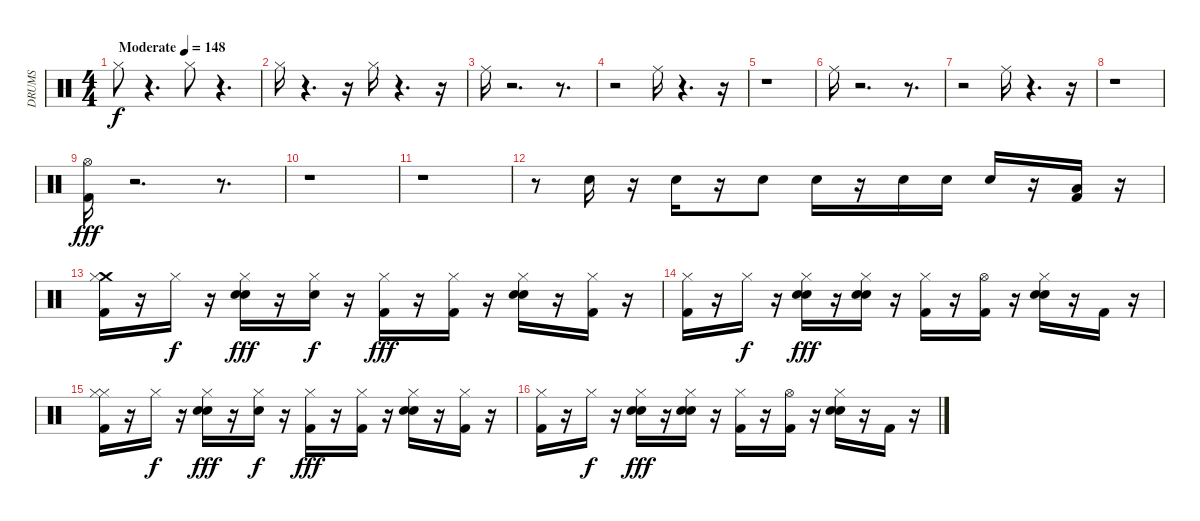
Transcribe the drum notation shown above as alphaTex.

\track ("DRUMS" "DRUMS") {instrument percussion}
\staff {score}
\articulation defaults
\ts (4 4)
\tempo (148 "Moderate")
\clef neutral
\ks c "Hi-Hat (closed)".8{dy f}
r.4{d} "Hi-Hat (closed)".8 r.4{d} |
"Hi-Hat (closed)".16 r.4{d} r.16 "Hi-Hat (closed)".16 r.4{d} r.16 |
"Ride (middle)".16 r.2{d} r.8{d} |
r.2 "Ride (middle)".16 r.4{d} r.16 |
r.1 |
"Ride (middle)".16 r.2{d} r.8{d} |
r.2 "Ride (middle)".16 r.4{d} r.16 |
r.1 |
("Kick (hit) 2" "Hi-Hat (open)").16{dy fff} r.2{d} r.8{d} |
r.1 |
r.1 |
r.8 "Snare (hit) 2".16 r.16 "Snare (hit) 2".16 r.16 "Snare (hit) 2".8 "Snare (hit) 2".16 r.16 "Snare (hit) 2".16 "Snare (hit) 2".16 "Snare (hit) 2".16 r.16 ("Low Floor Tom (hit)" "Kick (hit) 2").16 r.16 |
("Crash medium (hit)" "Kick (hit) 2" "Hi-Hat (closed)").16 r.16 "Hi-Hat (closed)".16{dy f} r.16 ("Hi-Hat (closed)" "Hand Clap (hit)" "Snare (hit) 2").16{dy fff} r.16 ("Hand Clap (hit)" "Hi-Hat (closed)").16{dy f} r.16 ("Hi-Hat (closed)" "Kick (hit) 2").16{dy fff} r.16 ("Hi-Hat (closed)" "Kick (hit) 2").16 r.16 ("Hi-Hat (closed)" "Hand Clap (hit)" "Snare (hit) 2").16 r.16 ("Hi-Hat (closed)" "Kick (hit) 2").16 r.16 |
("Hi-Hat (closed)" "Kick (hit) 2").16 r.16 "Hi-Hat (closed)".16{dy f} r.16 ("Hi-Hat (closed)" "Hand Clap (hit)" "Snare (hit) 2").16{dy fff} r.16 ("Hi-Hat (closed)" "Hand Clap (hit)" "Snare (hit) 2").16 r.16 ("Hi-Hat (closed)" "Kick (hit) 2").16 r.16 ("Hi-Hat (open)" "Kick (hit) 2").16 r.16 ("Hand Clap (hit)" "Snare (hit) 2" "Hi-Hat (closed)").16 r.16 "Kick (hit) 2".16 r.16 |
("Hi-Hat (closed)" "Kick (hit) 2" "Hi-Hat (closed)").16 r.16 "Hi-Hat (closed)".16{dy f} r.16 ("Hi-Hat (closed)" "Hand Clap (hit)" "Snare (hit) 2").16{dy fff} r.16 ("Hand Clap (hit)" "Hi-Hat (closed)").16{dy f} r.16 ("Hi-Hat (closed)" "Kick (hit) 2").16{dy fff} r.16 ("Hi-Hat (closed)" "Kick (hit) 2").16 r.16 ("Hi-Hat (closed)" "Hand Clap (hit)" "Snare (hit) 2").16 r.16 ("Hi-Hat (closed)" "Kick (hit) 2").16 r.16 |
("Hi-Hat (closed)" "Kick (hit) 2").16 r.16 "Hi-Hat (closed)".16{dy f} r.16 ("Hi-Hat (closed)" "Hand Clap (hit)" "Snare (hit) 2").16{dy fff} r.16 ("Hi-Hat (closed)" "Hand Clap (hit)" "Snare (hit) 2").16 r.16 ("Hi-Hat (closed)" "Kick (hit) 2").16 r.16 ("Hi-Hat (open)" "Kick (hit) 2").16 r.16 ("Hand Clap (hit)" "Snare (hit) 2" "Hi-Hat (closed)").16 r.16 "Kick (hit) 2".16 r.16
